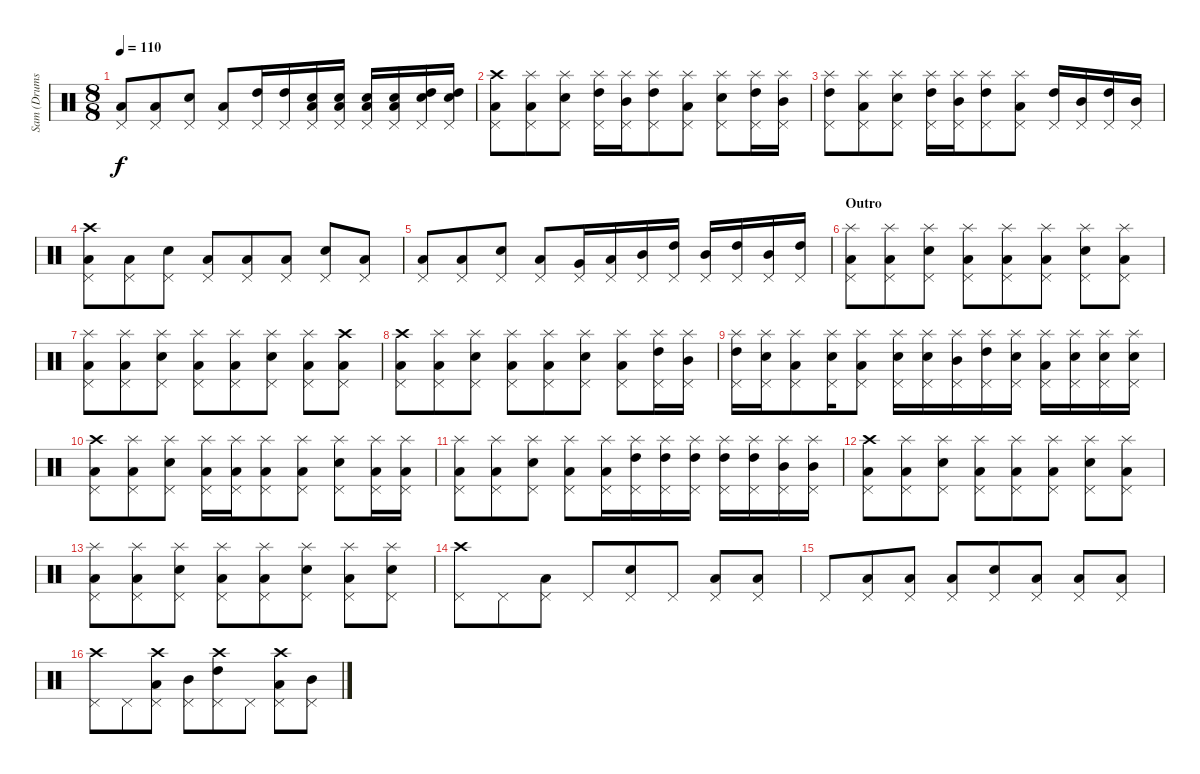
\track ("Sam (Drums)" "Sam (Drums") {instrument percussion}
\staff {score}
\articulation defaults
\ts (8 8)
\tempo 110
\clef neutral
\ks c
("Low Tom (hit)" "Pedal Hi-Hat (hit)").8{dy f} ("Low Tom (hit)" "Pedal Hi-Hat (hit)").8 ("Snare (hit) 2" "Pedal Hi-Hat (hit)").8 ("Low Tom (hit)" "Pedal Hi-Hat (hit)").8 ("High Tom (hit)" "Pedal Hi-Hat (hit)").16 ("High Tom (hit)" "Pedal Hi-Hat (hit)").16 ("Low Tom (hit)" "Snare (hit) 2" "Pedal Hi-Hat (hit)").16 ("Low Tom (hit)" "Snare (hit) 2" "Pedal Hi-Hat (hit)").16 ("Low Tom (hit)" "Snare (hit) 2" "Pedal Hi-Hat (hit)").16 ("Low Tom (hit)" "Snare (hit) 2" "Pedal Hi-Hat (hit)").16 ("High Tom (hit)" "Snare (hit) 2" "Pedal Hi-Hat (hit)").16 ("High Tom (hit)" "Snare (hit) 2" "Pedal Hi-Hat (hit)").16 |
("Crash high (hit)" "Low Tom (hit)" "Pedal Hi-Hat (hit)").8 ("Splash (hit)" "Low Tom (hit)" "Pedal Hi-Hat (hit)").8 ("Splash (hit)" "Snare (hit) 2" "Pedal Hi-Hat (hit)").8 ("Splash (hit)" "High Tom (hit)" "Pedal Hi-Hat (hit)").16 ("Splash (hit)" "Mid Tom (hit)" "Pedal Hi-Hat (hit)").16 ("Splash (hit)" "High Tom (hit)" "Pedal Hi-Hat (hit)").8 ("Splash (hit)" "Low Tom (hit)" "Pedal Hi-Hat (hit)").8 ("Splash (hit)" "Snare (hit) 2" "Pedal Hi-Hat (hit)").8 ("Splash (hit)" "High Tom (hit)" "Pedal Hi-Hat (hit)").16 ("Splash (hit)" "Mid Tom (hit)" "Pedal Hi-Hat (hit)").16 |
("Splash (hit)" "High Tom (hit)" "Pedal Hi-Hat (hit)").8 ("Splash (hit)" "Low Tom (hit)" "Pedal Hi-Hat (hit)").8 ("Splash (hit)" "Snare (hit) 2" "Pedal Hi-Hat (hit)").8 ("Splash (hit)" "High Tom (hit)" "Pedal Hi-Hat (hit)").16 ("Splash (hit)" "Mid Tom (hit)" "Pedal Hi-Hat (hit)").16 ("Splash (hit)" "High Tom (hit)" "Pedal Hi-Hat (hit)").8 ("Splash (hit)" "Low Tom (hit)" "Pedal Hi-Hat (hit)").8 ("High Tom (hit)" "Pedal Hi-Hat (hit)").16 ("Mid Tom (hit)" "Pedal Hi-Hat (hit)").16 ("High Tom (hit)" "Pedal Hi-Hat (hit)").16 ("Mid Tom (hit)" "Pedal Hi-Hat (hit)").16 |
("Crash high (hit)" "Low Tom (hit)" "Pedal Hi-Hat (hit)").8 ("Low Tom (hit)" "Pedal Hi-Hat (hit)").8 ("Snare (hit) 2" "Pedal Hi-Hat (hit)").8 ("Low Tom (hit)" "Pedal Hi-Hat (hit)").8 ("Low Tom (hit)" "Pedal Hi-Hat (hit)").8 ("Low Tom (hit)" "Pedal Hi-Hat (hit)").8 ("Snare (hit) 2" "Pedal Hi-Hat (hit)").8 ("Low Tom (hit)" "Pedal Hi-Hat (hit)").8 |
("Low Tom (hit)" "Pedal Hi-Hat (hit)").8 ("Low Tom (hit)" "Pedal Hi-Hat (hit)").8 ("Snare (hit) 2" "Pedal Hi-Hat (hit)").8 ("Low Tom (hit)" "Pedal Hi-Hat (hit)").8 ("Very Low Tom (hit)" "Pedal Hi-Hat (hit)").16 ("Low Tom (hit)" "Pedal Hi-Hat (hit)").16 ("Mid Tom (hit)" "Pedal Hi-Hat (hit)").16 ("High Tom (hit)" "Pedal Hi-Hat (hit)").16 ("Mid Tom (hit)" "Pedal Hi-Hat (hit)").16 ("High Tom (hit)" "Pedal Hi-Hat (hit)").16 ("Mid Tom (hit)" "Pedal Hi-Hat (hit)").16 ("High Tom (hit)" "Pedal Hi-Hat (hit)").16 |
\section ("" "Outro")
("Splash (hit)" "Low Tom (hit)" "Pedal Hi-Hat (hit)").8 ("Splash (hit)" "Low Tom (hit)" "Pedal Hi-Hat (hit)").8 ("Splash (hit)" "Snare (hit) 2" "Pedal Hi-Hat (hit)").8 ("Splash (hit)" "Low Tom (hit)" "Pedal Hi-Hat (hit)").8 ("Splash (hit)" "Low Tom (hit)" "Pedal Hi-Hat (hit)").8 ("Splash (hit)" "Low Tom (hit)" "Pedal Hi-Hat (hit)").8 ("Splash (hit)" "Snare (hit) 2" "Pedal Hi-Hat (hit)").8 ("Splash (hit)" "Low Tom (hit)" "Pedal Hi-Hat (hit)").8 |
("Splash (hit)" "Low Tom (hit)" "Pedal Hi-Hat (hit)").8 ("Splash (hit)" "Low Tom (hit)" "Pedal Hi-Hat (hit)").8 ("Splash (hit)" "Snare (hit) 2" "Pedal Hi-Hat (hit)").8 ("Splash (hit)" "Low Tom (hit)" "Pedal Hi-Hat (hit)").8 ("Splash (hit)" "Low Tom (hit)" "Pedal Hi-Hat (hit)").8 ("Splash (hit)" "Snare (hit) 2" "Pedal Hi-Hat (hit)").8 ("Splash (hit)" "Low Tom (hit)" "Pedal Hi-Hat (hit)").8 ("Crash high (hit)" "Low Tom (hit)" "Pedal Hi-Hat (hit)").8 |
("Crash high (hit)" "Low Tom (hit)" "Pedal Hi-Hat (hit)").8 ("Splash (hit)" "Low Tom (hit)" "Pedal Hi-Hat (hit)").8 ("Splash (hit)" "Snare (hit) 2" "Pedal Hi-Hat (hit)").8 ("Splash (hit)" "Low Tom (hit)" "Pedal Hi-Hat (hit)").8 ("Splash (hit)" "Low Tom (hit)" "Pedal Hi-Hat (hit)").8 ("Splash (hit)" "Snare (hit) 2" "Pedal Hi-Hat (hit)").8 ("Splash (hit)" "Low Tom (hit)" "Pedal Hi-Hat (hit)").8 ("Splash (hit)" "High Tom (hit)" "Pedal Hi-Hat (hit)").16 ("Splash (hit)" "Mid Tom (hit)" "Pedal Hi-Hat (hit)").16 |
("Splash (hit)" "High Tom (hit)" "Pedal Hi-Hat (hit)").16 ("Splash (hit)" "Snare (hit) 2" "Pedal Hi-Hat (hit)").16 ("Splash (hit)" "Low Tom (hit)" "Pedal Hi-Hat (hit)").8 ("Splash (hit)" "Snare (hit) 2" "Pedal Hi-Hat (hit)").16 ("Splash (hit)" "Low Tom (hit)" "Pedal Hi-Hat (hit)").8 ("Splash (hit)" "Snare (hit) 2" "Pedal Hi-Hat (hit)").16 ("Splash (hit)" "Snare (hit) 2" "Pedal Hi-Hat (hit)").16 ("Splash (hit)" "Mid Tom (hit)" "Pedal Hi-Hat (hit)").16 ("Splash (hit)" "High Tom (hit)" "Pedal Hi-Hat (hit)").16 ("Splash (hit)" "Snare (hit) 2" "Pedal Hi-Hat (hit)").16 ("Splash (hit)" "Low Tom (hit)" "Pedal Hi-Hat (hit)").16 ("Splash (hit)" "Snare (hit) 2" "Pedal Hi-Hat (hit)").16 ("Splash (hit)" "Snare (hit) 2" "Pedal Hi-Hat (hit)").16 ("Splash (hit)" "Snare (hit) 2" "Pedal Hi-Hat (hit)").16 |
("Crash high (hit)" "Low Tom (hit)" "Pedal Hi-Hat (hit)").8 ("Splash (hit)" "Low Tom (hit)" "Pedal Hi-Hat (hit)").8 ("Splash (hit)" "Snare (hit) 2" "Pedal Hi-Hat (hit)").8 ("Splash (hit)" "Low Tom (hit)" "Pedal Hi-Hat (hit)").16 ("Splash (hit)" "Low Tom (hit)" "Pedal Hi-Hat (hit)").16 ("Splash (hit)" "Low Tom (hit)" "Pedal Hi-Hat (hit)").8 ("Splash (hit)" "Low Tom (hit)" "Pedal Hi-Hat (hit)").8 ("Splash (hit)" "Snare (hit) 2" "Pedal Hi-Hat (hit)").8 ("Splash (hit)" "Low Tom (hit)" "Pedal Hi-Hat (hit)").16 ("Splash (hit)" "Low Tom (hit)" "Pedal Hi-Hat (hit)").16 |
("Splash (hit)" "Low Tom (hit)" "Pedal Hi-Hat (hit)").8 ("Splash (hit)" "Low Tom (hit)" "Pedal Hi-Hat (hit)").8 ("Splash (hit)" "Snare (hit) 2" "Pedal Hi-Hat (hit)").8 ("Splash (hit)" "Low Tom (hit)" "Pedal Hi-Hat (hit)").8 ("Splash (hit)" "Low Tom (hit)" "Pedal Hi-Hat (hit)").16 ("Splash (hit)" "High Tom (hit)" "Pedal Hi-Hat (hit)").16 ("Splash (hit)" "High Tom (hit)" "Pedal Hi-Hat (hit)").16 ("Splash (hit)" "High Tom (hit)" "Pedal Hi-Hat (hit)").16 ("Splash (hit)" "High Tom (hit)" "Pedal Hi-Hat (hit)").16 ("Splash (hit)" "High Tom (hit)" "Pedal Hi-Hat (hit)").16 ("Splash (hit)" "Mid Tom (hit)" "Pedal Hi-Hat (hit)").16 ("Splash (hit)" "Mid Tom (hit)" "Pedal Hi-Hat (hit)").16 |
("Crash high (hit)" "Low Tom (hit)" "Pedal Hi-Hat (hit)").8 ("Splash (hit)" "Low Tom (hit)" "Pedal Hi-Hat (hit)").8 ("Splash (hit)" "Snare (hit) 2" "Pedal Hi-Hat (hit)").8 ("Splash (hit)" "Low Tom (hit)" "Pedal Hi-Hat (hit)").8 ("Splash (hit)" "Low Tom (hit)" "Pedal Hi-Hat (hit)").8 ("Splash (hit)" "Low Tom (hit)" "Pedal Hi-Hat (hit)").8 ("Splash (hit)" "Snare (hit) 2" "Pedal Hi-Hat (hit)").8 ("Splash (hit)" "Low Tom (hit)" "Pedal Hi-Hat (hit)").8 |
("Splash (hit)" "Low Tom (hit)" "Pedal Hi-Hat (hit)").8 ("Splash (hit)" "Low Tom (hit)" "Pedal Hi-Hat (hit)").8 ("Splash (hit)" "Snare (hit) 2" "Pedal Hi-Hat (hit)").8 ("Splash (hit)" "Low Tom (hit)" "Pedal Hi-Hat (hit)").8 ("Splash (hit)" "Low Tom (hit)" "Pedal Hi-Hat (hit)").8 ("Splash (hit)" "Snare (hit) 2" "Pedal Hi-Hat (hit)").8 ("Splash (hit)" "Low Tom (hit)" "Pedal Hi-Hat (hit)").8 ("Splash (hit)" "Snare (hit) 2" "Pedal Hi-Hat (hit)").8 |
("Crash high (hit)" "Pedal Hi-Hat (hit)").8 "Pedal Hi-Hat (hit)".8 ("Low Tom (hit)" "Pedal Hi-Hat (hit)").8 "Pedal Hi-Hat (hit)".8 ("Snare (hit) 2" "Pedal Hi-Hat (hit)").8 "Pedal Hi-Hat (hit)".8 ("Low Tom (hit)" "Pedal Hi-Hat (hit)").8 ("Low Tom (hit)" "Pedal Hi-Hat (hit)").8 |
"Pedal Hi-Hat (hit)".8 ("Low Tom (hit)" "Pedal Hi-Hat (hit)").8 ("Low Tom (hit)" "Pedal Hi-Hat (hit)").8 ("Low Tom (hit)" "Pedal Hi-Hat (hit)").8 ("Snare (hit) 2" "Pedal Hi-Hat (hit)").8 ("Low Tom (hit)" "Pedal Hi-Hat (hit)").8 ("Low Tom (hit)" "Pedal Hi-Hat (hit)").8 ("Low Tom (hit)" "Pedal Hi-Hat (hit)").8 |
("Crash high (hit)" "Pedal Hi-Hat (hit)").8 "Pedal Hi-Hat (hit)".8 ("Crash high (hit)" "Low Tom (hit)" "Pedal Hi-Hat (hit)").8 ("Mid Tom (hit)" "Pedal Hi-Hat (hit)").8 ("Crash high (hit)" "High Tom (hit)" "Pedal Hi-Hat (hit)").8 "Pedal Hi-Hat (hit)".8 ("Crash high (hit)" "Low Tom (hit)" "Pedal Hi-Hat (hit)").8 ("Mid Tom (hit)" "Pedal Hi-Hat (hit)").8
